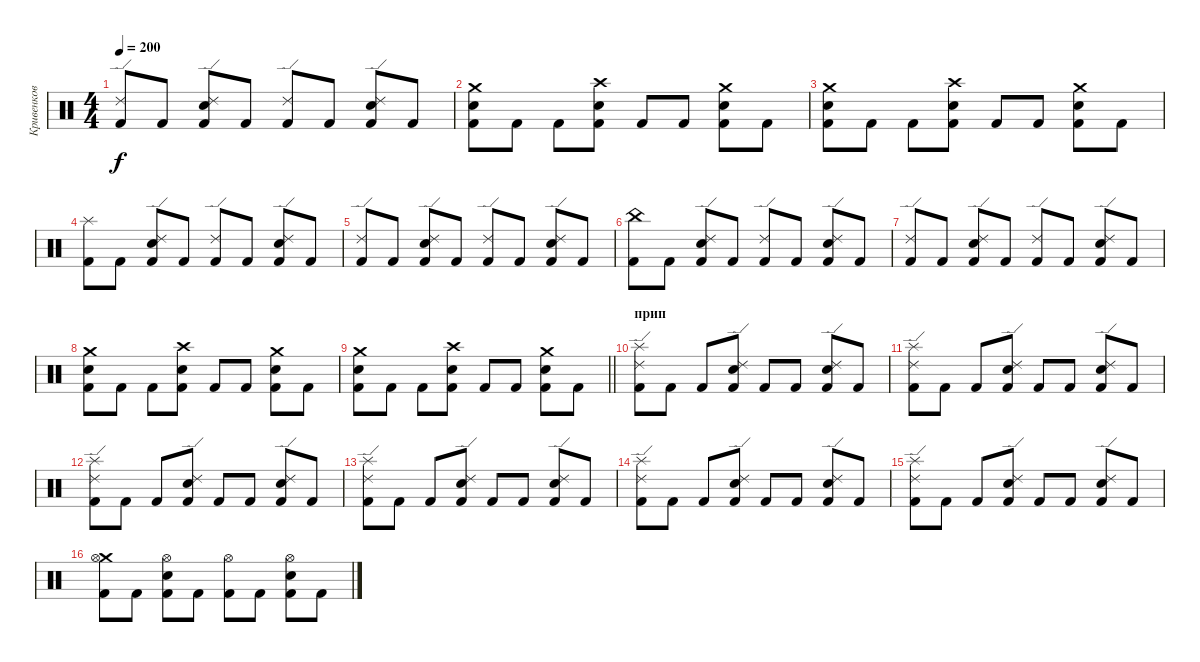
\track ("Кривенков" "Кривенков") {instrument percussion}
\staff {score}
\articulation defaults
\ts (4 4)
\tempo 200
\clef neutral
\ks c
("Ride (edge) 2" "Kick (hit) 2").8{dy f} "Kick (hit) 2".8 ("Ride (edge) 2" "Electric Snare (hit)" "Kick (hit) 2").8 "Kick (hit) 2".8 ("Ride (edge) 2" "Kick (hit) 2").8 "Kick (hit) 2".8 ("Ride (edge) 2" "Electric Snare (hit)" "Kick (hit) 2").8 "Kick (hit) 2".8 |
("Crash medium (hit)" "Electric Snare (hit)" "Kick (hit) 2").8 "Kick (hit) 2".8 "Kick (hit) 2".8 ("Crash high (hit)" "Electric Snare (hit)" "Kick (hit) 2").8 "Kick (hit) 2".8 "Kick (hit) 2".8 ("Crash medium (hit)" "Electric Snare (hit)" "Kick (hit) 2").8 "Kick (hit) 2".8 |
("Crash medium (hit)" "Electric Snare (hit)" "Kick (hit) 2").8 "Kick (hit) 2".8 "Kick (hit) 2".8 ("Crash high (hit)" "Electric Snare (hit)" "Kick (hit) 2").8 "Kick (hit) 2".8 "Kick (hit) 2".8 ("Crash medium (hit)" "Electric Snare (hit)" "Kick (hit) 2").8 "Kick (hit) 2".8 |
("Splash (hit)" "Kick (hit) 2").8 "Kick (hit) 2".8 ("Ride (edge) 2" "Electric Snare (hit)" "Kick (hit) 2").8 "Kick (hit) 2".8 ("Ride (edge) 2" "Kick (hit) 2").8 "Kick (hit) 2".8 ("Ride (edge) 2" "Electric Snare (hit)" "Kick (hit) 2").8 "Kick (hit) 2".8 |
("Ride (edge) 2" "Kick (hit) 2").8 "Kick (hit) 2".8 ("Ride (edge) 2" "Electric Snare (hit)" "Kick (hit) 2").8 "Kick (hit) 2".8 ("Ride (edge) 2" "Kick (hit) 2").8 "Kick (hit) 2".8 ("Ride (edge) 2" "Electric Snare (hit)" "Kick (hit) 2").8 "Kick (hit) 2".8 |
("China (hit)" "Kick (hit) 2").8 "Kick (hit) 2".8 ("Ride (edge) 2" "Electric Snare (hit)" "Kick (hit) 2").8 "Kick (hit) 2".8 ("Ride (edge) 2" "Kick (hit) 2").8 "Kick (hit) 2".8 ("Ride (edge) 2" "Electric Snare (hit)" "Kick (hit) 2").8 "Kick (hit) 2".8 |
("Ride (edge) 2" "Kick (hit) 2").8 "Kick (hit) 2".8 ("Ride (edge) 2" "Electric Snare (hit)" "Kick (hit) 2").8 "Kick (hit) 2".8 ("Ride (edge) 2" "Kick (hit) 2").8 "Kick (hit) 2".8 ("Ride (edge) 2" "Electric Snare (hit)" "Kick (hit) 2").8 "Kick (hit) 2".8 |
("Crash medium (hit)" "Electric Snare (hit)" "Kick (hit) 2").8 "Kick (hit) 2".8 "Kick (hit) 2".8 ("Crash high (hit)" "Electric Snare (hit)" "Kick (hit) 2").8 "Kick (hit) 2".8 "Kick (hit) 2".8 ("Crash medium (hit)" "Electric Snare (hit)" "Kick (hit) 2").8 "Kick (hit) 2".8 |
\barLineRight lightlight
("Crash medium (hit)" "Electric Snare (hit)" "Kick (hit) 2").8 "Kick (hit) 2".8 "Kick (hit) 2".8 ("Crash high (hit)" "Electric Snare (hit)" "Kick (hit) 2").8 "Kick (hit) 2".8 "Kick (hit) 2".8 ("Crash medium (hit)" "Electric Snare (hit)" "Kick (hit) 2").8 "Kick (hit) 2".8 |
\section ("" "прип")
("Splash (hit)" "Ride (edge) 2" "Kick (hit) 2").8 "Kick (hit) 2".8 "Kick (hit) 2".8 ("Ride (edge) 2" "Electric Snare (hit)" "Kick (hit) 2").8 "Kick (hit) 2".8 "Kick (hit) 2".8 ("Ride (edge) 2" "Electric Snare (hit)" "Kick (hit) 2").8 "Kick (hit) 2".8 |
("Splash (hit)" "Ride (edge) 2" "Kick (hit) 2").8 "Kick (hit) 2".8 "Kick (hit) 2".8 ("Ride (edge) 2" "Electric Snare (hit)" "Kick (hit) 2").8 "Kick (hit) 2".8 "Kick (hit) 2".8 ("Ride (edge) 2" "Electric Snare (hit)" "Kick (hit) 2").8 "Kick (hit) 2".8 |
("Splash (hit)" "Ride (edge) 2" "Kick (hit) 2").8 "Kick (hit) 2".8 "Kick (hit) 2".8 ("Ride (edge) 2" "Electric Snare (hit)" "Kick (hit) 2").8 "Kick (hit) 2".8 "Kick (hit) 2".8 ("Ride (edge) 2" "Electric Snare (hit)" "Kick (hit) 2").8 "Kick (hit) 2".8 |
("Splash (hit)" "Ride (edge) 2" "Kick (hit) 2").8 "Kick (hit) 2".8 "Kick (hit) 2".8 ("Ride (edge) 2" "Electric Snare (hit)" "Kick (hit) 2").8 "Kick (hit) 2".8 "Kick (hit) 2".8 ("Ride (edge) 2" "Electric Snare (hit)" "Kick (hit) 2").8 "Kick (hit) 2".8 |
("Splash (hit)" "Ride (edge) 2" "Kick (hit) 2").8 "Kick (hit) 2".8 "Kick (hit) 2".8 ("Ride (edge) 2" "Electric Snare (hit)" "Kick (hit) 2").8 "Kick (hit) 2".8 "Kick (hit) 2".8 ("Ride (edge) 2" "Electric Snare (hit)" "Kick (hit) 2").8 "Kick (hit) 2".8 |
("Splash (hit)" "Ride (edge) 2" "Kick (hit) 2").8 "Kick (hit) 2".8 "Kick (hit) 2".8 ("Ride (edge) 2" "Electric Snare (hit)" "Kick (hit) 2").8 "Kick (hit) 2".8 "Kick (hit) 2".8 ("Ride (edge) 2" "Electric Snare (hit)" "Kick (hit) 2").8 "Kick (hit) 2".8 |
("Crash medium (hit)" "Hi-Hat (open)" "Kick (hit) 2").8 "Kick (hit) 2".8 ("Hi-Hat (open)" "Electric Snare (hit)" "Kick (hit) 2").8 "Kick (hit) 2".8 ("Hi-Hat (open)" "Kick (hit) 2").8 "Kick (hit) 2".8 ("Hi-Hat (open)" "Electric Snare (hit)" "Kick (hit) 2").8 "Kick (hit) 2".8
